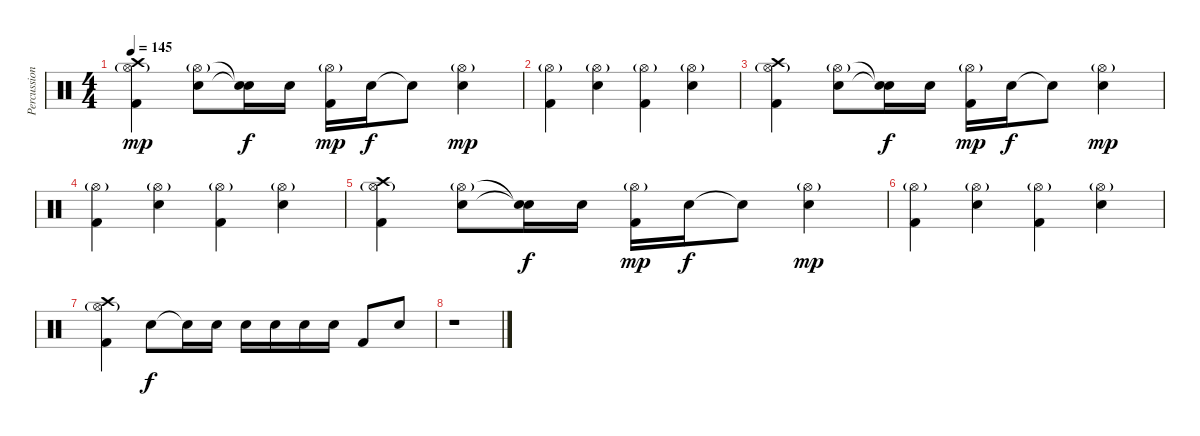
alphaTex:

\track ("Percussion" "Percussion") {instrument percussion}
\staff {score}
\articulation defaults
\ts (4 4)
\tempo 145
\clef neutral
\ks c
("Hi-Hat (open)"{g} "Crash high (hit)" "Kick (hit) 2").4{dy mp} ("Hi-Hat (open)"{g} "Electric Snare (hit)").8 ("Snare (hit)"{t} "Snare (hit)"{t}).16{dy f} "Electric Snare (hit)".16 ("Hi-Hat (open)"{g} "Kick (hit) 2").16{dy mp} "Electric Snare (hit)".16{dy f} "Snare (hit)"{t}.8 ("Hi-Hat (open)"{g} "Electric Snare (hit)").4{dy mp} |
("Hi-Hat (open)"{g} "Kick (hit) 2").4 ("Hi-Hat (open)"{g} "Electric Snare (hit)").4 ("Hi-Hat (open)"{g} "Kick (hit) 2").4 ("Hi-Hat (open)"{g} "Electric Snare (hit)").4 |
("Hi-Hat (open)"{g} "Crash high (hit)" "Kick (hit) 2").4 ("Hi-Hat (open)"{g} "Electric Snare (hit)").8 ("Snare (hit)"{t} "Snare (hit)"{t}).16{dy f} "Electric Snare (hit)".16 ("Hi-Hat (open)"{g} "Kick (hit) 2").16{dy mp} "Electric Snare (hit)".16{dy f} "Snare (hit)"{t}.8 ("Hi-Hat (open)"{g} "Electric Snare (hit)").4{dy mp} |
("Hi-Hat (open)"{g} "Kick (hit) 2").4 ("Hi-Hat (open)"{g} "Electric Snare (hit)").4 ("Hi-Hat (open)"{g} "Kick (hit) 2").4 ("Hi-Hat (open)"{g} "Electric Snare (hit)").4 |
("Hi-Hat (open)"{g} "Crash high (hit)" "Kick (hit) 2").4 ("Hi-Hat (open)"{g} "Electric Snare (hit)").8 ("Snare (hit)"{t} "Snare (hit)"{t}).16{dy f} "Electric Snare (hit)".16 ("Hi-Hat (open)"{g} "Kick (hit) 2").16{dy mp} "Electric Snare (hit)".16{dy f} "Snare (hit)"{t}.8 ("Hi-Hat (open)"{g} "Electric Snare (hit)").4{dy mp} |
("Hi-Hat (open)"{g} "Kick (hit) 2").4 ("Hi-Hat (open)"{g} "Electric Snare (hit)").4 ("Hi-Hat (open)"{g} "Kick (hit) 2").4 ("Hi-Hat (open)"{g} "Electric Snare (hit)").4 |
("Hi-Hat (open)"{g} "Crash high (hit)" "Kick (hit) 2").4 "Electric Snare (hit)".8{dy f} "Snare (hit)"{t}.16 "Electric Snare (hit)".16 "Electric Snare (hit)".16 "Electric Snare (hit)".16 "Electric Snare (hit)".16 "Electric Snare (hit)".16 "Kick (hit) 2".8 "Electric Snare (hit)".8 |
r.1
